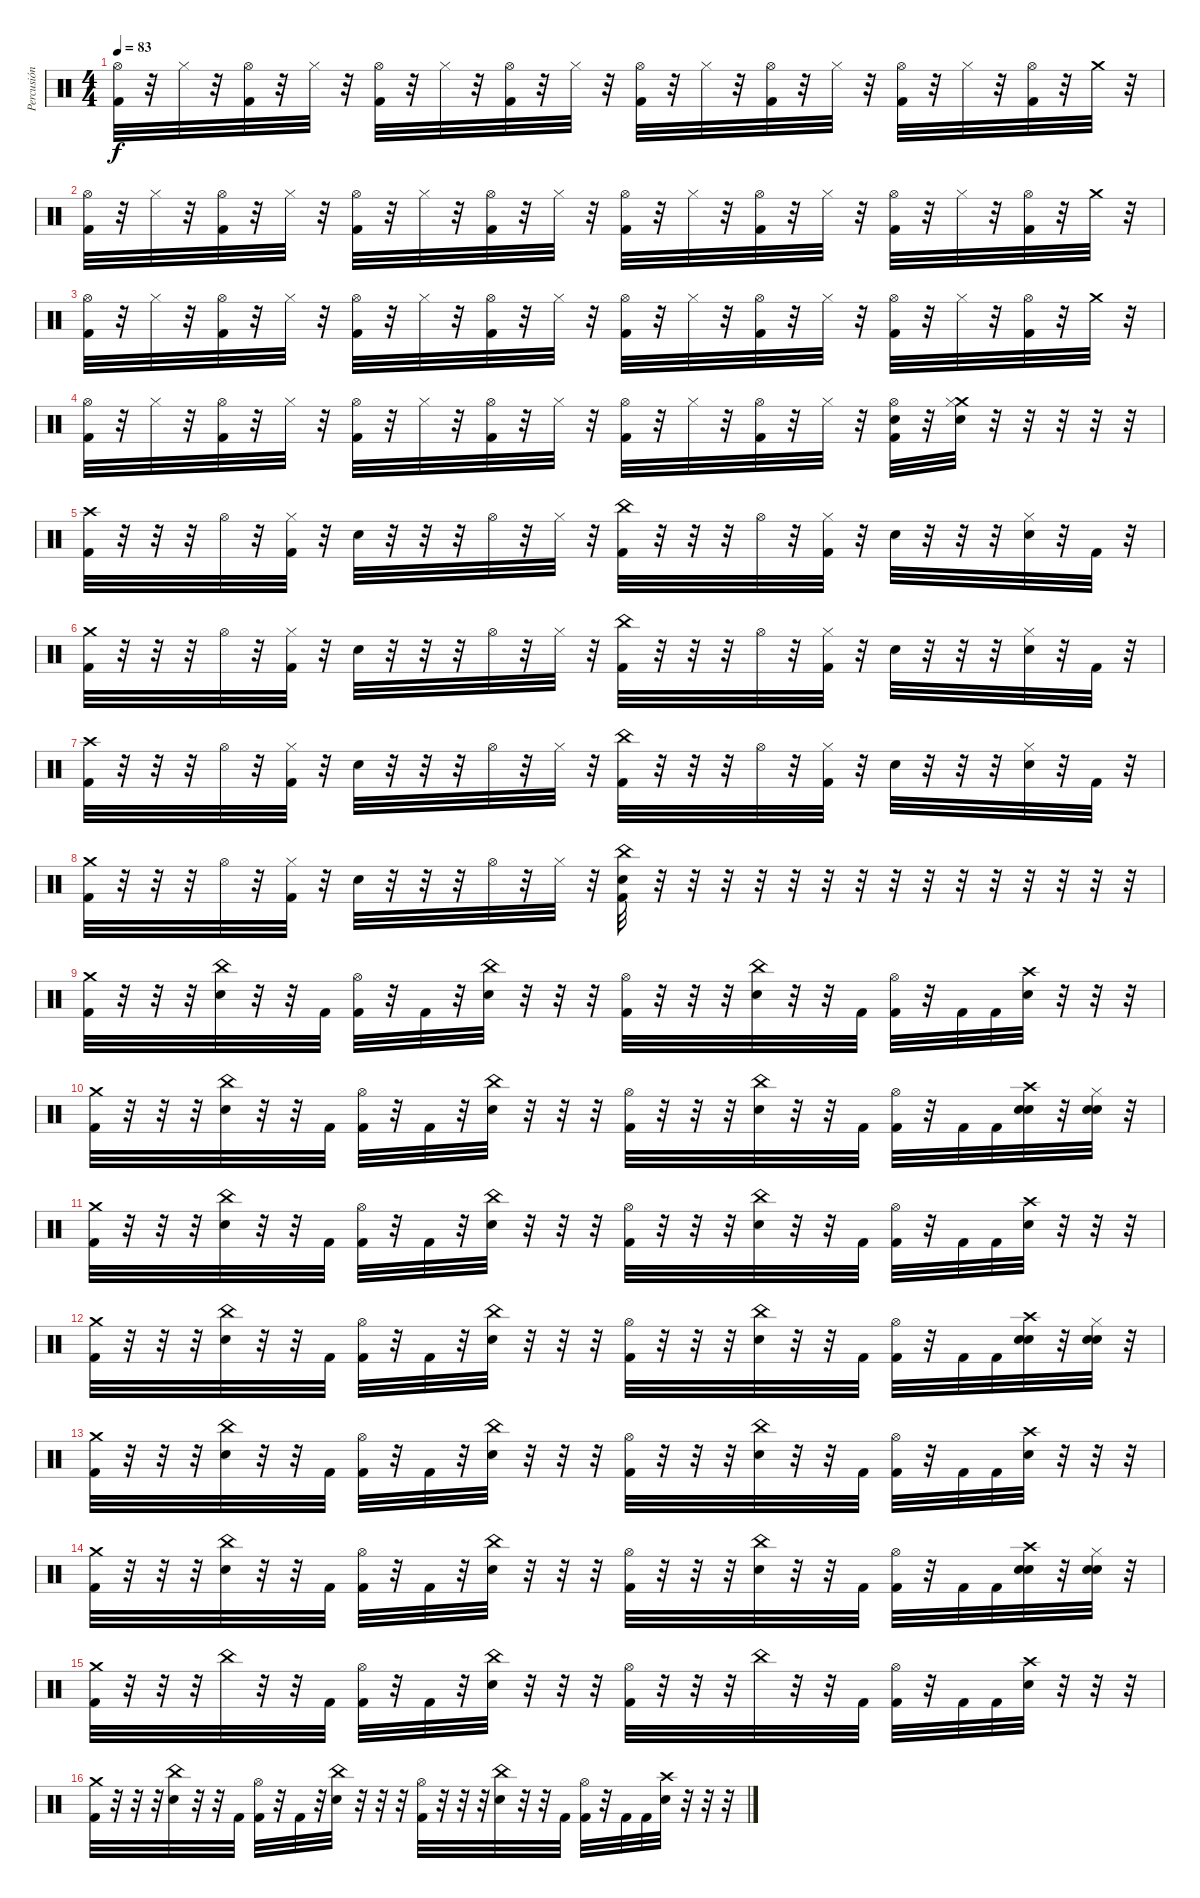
\track ("Percusión" "Percusión") {instrument percussion}
\staff {score}
\articulation defaults
\ts (4 4)
\tempo 83
\clef neutral
\ks c
("Hi-Hat (open)" "Kick (hit) 2").32{dy f} r.32 "Hi-Hat (closed)".32 r.32 ("Hi-Hat (open)" "Kick (hit) 2").32 r.32 "Hi-Hat (closed)".32 r.32 ("Hi-Hat (open)" "Kick (hit) 2").32 r.32 "Hi-Hat (closed)".32 r.32 ("Hi-Hat (open)" "Kick (hit) 2").32 r.32 "Hi-Hat (closed)".32 r.32 ("Hi-Hat (open)" "Kick (hit) 2").32 r.32 "Hi-Hat (closed)".32 r.32 ("Hi-Hat (open)" "Kick (hit) 2").32 r.32 "Hi-Hat (closed)".32 r.32 ("Hi-Hat (open)" "Kick (hit) 2").32 r.32 "Hi-Hat (closed)".32 r.32 ("Hi-Hat (open)" "Kick (hit) 2").32 r.32 "Crash medium (hit)".32 r.32 |
("Hi-Hat (open)" "Kick (hit) 2").32 r.32 "Hi-Hat (closed)".32 r.32 ("Hi-Hat (open)" "Kick (hit) 2").32 r.32 "Hi-Hat (closed)".32 r.32 ("Hi-Hat (open)" "Kick (hit) 2").32 r.32 "Hi-Hat (closed)".32 r.32 ("Hi-Hat (open)" "Kick (hit) 2").32 r.32 "Hi-Hat (closed)".32 r.32 ("Hi-Hat (open)" "Kick (hit) 2").32 r.32 "Hi-Hat (closed)".32 r.32 ("Hi-Hat (open)" "Kick (hit) 2").32 r.32 "Hi-Hat (closed)".32 r.32 ("Hi-Hat (open)" "Kick (hit) 2").32 r.32 "Hi-Hat (closed)".32 r.32 ("Hi-Hat (open)" "Kick (hit) 2").32 r.32 "Crash medium (hit)".32 r.32 |
("Hi-Hat (open)" "Kick (hit) 2").32 r.32 "Hi-Hat (closed)".32 r.32 ("Hi-Hat (open)" "Kick (hit) 2").32 r.32 "Hi-Hat (closed)".32 r.32 ("Hi-Hat (open)" "Kick (hit) 2").32 r.32 "Hi-Hat (closed)".32 r.32 ("Hi-Hat (open)" "Kick (hit) 2").32 r.32 "Hi-Hat (closed)".32 r.32 ("Hi-Hat (open)" "Kick (hit) 2").32 r.32 "Hi-Hat (closed)".32 r.32 ("Hi-Hat (open)" "Kick (hit) 2").32 r.32 "Hi-Hat (closed)".32 r.32 ("Hi-Hat (open)" "Kick (hit) 2").32 r.32 "Hi-Hat (closed)".32 r.32 ("Hi-Hat (open)" "Kick (hit) 2").32 r.32 "Crash medium (hit)".32 r.32 |
("Hi-Hat (open)" "Kick (hit) 2").32 r.32 "Hi-Hat (closed)".32 r.32 ("Hi-Hat (open)" "Kick (hit) 2").32 r.32 "Hi-Hat (closed)".32 r.32 ("Hi-Hat (open)" "Kick (hit) 2").32 r.32 "Hi-Hat (closed)".32 r.32 ("Hi-Hat (open)" "Kick (hit) 2").32 r.32 "Hi-Hat (closed)".32 r.32 ("Hi-Hat (open)" "Kick (hit) 2").32 r.32 "Hi-Hat (closed)".32 r.32 ("Hi-Hat (open)" "Kick (hit) 2").32 r.32 "Hi-Hat (closed)".32 r.32 ("Hi-Hat (open)" "Snare (hit) 2" "Kick (hit) 2").32 r.32 ("Crash medium (hit)" "Hi-Hat (closed)" "Snare (hit) 2").32 r.32 r.32 r.32 r.32 r.32 |
("Crash high (hit)" "Kick (hit) 2").32 r.32 r.32 r.32 "Hi-Hat (open)".32 r.32 ("Hi-Hat (closed)" "Kick (hit) 2").32 r.32 "Snare (hit) 2".32 r.32 r.32 r.32 "Hi-Hat (open)".32 r.32 "Hi-Hat (closed)".32 r.32 ("China (hit)" "Kick (hit) 2").32 r.32 r.32 r.32 "Hi-Hat (open)".32 r.32 ("Hi-Hat (closed)" "Kick (hit) 2").32 r.32 "Snare (hit) 2".32 r.32 r.32 r.32 ("Hi-Hat (closed)" "Snare (hit) 2").32 r.32 "Kick (hit) 2".32 r.32 |
("Crash medium (hit)" "Kick (hit) 2").32 r.32 r.32 r.32 "Hi-Hat (open)".32 r.32 ("Hi-Hat (closed)" "Kick (hit) 2").32 r.32 "Snare (hit) 2".32 r.32 r.32 r.32 "Hi-Hat (open)".32 r.32 "Hi-Hat (closed)".32 r.32 ("China (hit)" "Kick (hit) 2").32 r.32 r.32 r.32 "Hi-Hat (open)".32 r.32 ("Hi-Hat (closed)" "Kick (hit) 2").32 r.32 "Snare (hit) 2".32 r.32 r.32 r.32 ("Hi-Hat (closed)" "Snare (hit) 2").32 r.32 "Kick (hit) 2".32 r.32 |
("Crash high (hit)" "Kick (hit) 2").32 r.32 r.32 r.32 "Hi-Hat (open)".32 r.32 ("Hi-Hat (closed)" "Kick (hit) 2").32 r.32 "Snare (hit) 2".32 r.32 r.32 r.32 "Hi-Hat (open)".32 r.32 "Hi-Hat (closed)".32 r.32 ("China (hit)" "Kick (hit) 2").32 r.32 r.32 r.32 "Hi-Hat (open)".32 r.32 ("Hi-Hat (closed)" "Kick (hit) 2").32 r.32 "Snare (hit) 2".32 r.32 r.32 r.32 ("Hi-Hat (closed)" "Snare (hit) 2").32 r.32 "Kick (hit) 2".32 r.32 |
("Crash medium (hit)" "Kick (hit) 2").32 r.32 r.32 r.32 "Hi-Hat (open)".32 r.32 ("Hi-Hat (closed)" "Kick (hit) 2").32 r.32 "Snare (hit) 2".32 r.32 r.32 r.32 "Hi-Hat (open)".32 r.32 "Hi-Hat (closed)".32 r.32 ("China (hit)" "Snare (hit) 2" "Kick (hit) 2").32 r.32 r.32 r.32 r.32 r.32 r.32 r.32 r.32 r.32 r.32 r.32 r.32 r.32 r.32 r.32 |
("Crash medium (hit)" "Kick (hit) 2").32 r.32 r.32 r.32 ("China (hit)" "Snare (hit) 2").32 r.32 r.32 "Kick (hit) 2".32 ("Hi-Hat (open)" "Kick (hit) 2").32 r.32 "Kick (hit) 2".32 r.32 ("China (hit)" "Snare (hit) 2").32 r.32 r.32 r.32 ("Hi-Hat (open)" "Kick (hit) 2").32 r.32 r.32 r.32 ("China (hit)" "Snare (hit) 2").32 r.32 r.32 "Kick (hit) 2".32 ("Hi-Hat (open)" "Kick (hit) 2").32 r.32 "Kick (hit) 2".32 "Kick (hit) 2".32 ("Crash high (hit)" "Snare (hit) 2").32 r.32 r.32 r.32 |
("Crash medium (hit)" "Kick (hit) 2").32 r.32 r.32 r.32 ("China (hit)" "Snare (hit) 2").32 r.32 r.32 "Kick (hit) 2".32 ("Hi-Hat (open)" "Kick (hit) 2").32 r.32 "Kick (hit) 2".32 r.32 ("China (hit)" "Snare (hit) 2").32 r.32 r.32 r.32 ("Hi-Hat (open)" "Kick (hit) 2").32 r.32 r.32 r.32 ("China (hit)" "Snare (hit) 2").32 r.32 r.32 "Kick (hit) 2".32 ("Hi-Hat (open)" "Kick (hit) 2").32 r.32 "Kick (hit) 2".32 "Kick (hit) 2".32 ("Crash high (hit)" "Hand Clap (hit)" "Snare (hit) 2").32 r.32 ("Hi-Hat (closed)" "Hand Clap (hit)" "Snare (hit) 2").32 r.32 |
("Crash medium (hit)" "Kick (hit) 2").32 r.32 r.32 r.32 ("China (hit)" "Snare (hit) 2").32 r.32 r.32 "Kick (hit) 2".32 ("Hi-Hat (open)" "Kick (hit) 2").32 r.32 "Kick (hit) 2".32 r.32 ("China (hit)" "Snare (hit) 2").32 r.32 r.32 r.32 ("Hi-Hat (open)" "Kick (hit) 2").32 r.32 r.32 r.32 ("China (hit)" "Snare (hit) 2").32 r.32 r.32 "Kick (hit) 2".32 ("Hi-Hat (open)" "Kick (hit) 2").32 r.32 "Kick (hit) 2".32 "Kick (hit) 2".32 ("Crash high (hit)" "Snare (hit) 2").32 r.32 r.32 r.32 |
("Crash medium (hit)" "Kick (hit) 2").32 r.32 r.32 r.32 ("China (hit)" "Snare (hit) 2").32 r.32 r.32 "Kick (hit) 2".32 ("Hi-Hat (open)" "Kick (hit) 2").32 r.32 "Kick (hit) 2".32 r.32 ("China (hit)" "Snare (hit) 2").32 r.32 r.32 r.32 ("Hi-Hat (open)" "Kick (hit) 2").32 r.32 r.32 r.32 ("China (hit)" "Snare (hit) 2").32 r.32 r.32 "Kick (hit) 2".32 ("Hi-Hat (open)" "Kick (hit) 2").32 r.32 "Kick (hit) 2".32 "Kick (hit) 2".32 ("Crash high (hit)" "Hand Clap (hit)" "Snare (hit) 2").32 r.32 ("Hi-Hat (closed)" "Hand Clap (hit)" "Snare (hit) 2").32 r.32 |
("Crash medium (hit)" "Kick (hit) 2").32 r.32 r.32 r.32 ("China (hit)" "Snare (hit) 2").32 r.32 r.32 "Kick (hit) 2".32 ("Hi-Hat (open)" "Kick (hit) 2").32 r.32 "Kick (hit) 2".32 r.32 ("China (hit)" "Snare (hit) 2").32 r.32 r.32 r.32 ("Hi-Hat (open)" "Kick (hit) 2").32 r.32 r.32 r.32 ("China (hit)" "Snare (hit) 2").32 r.32 r.32 "Kick (hit) 2".32 ("Hi-Hat (open)" "Kick (hit) 2").32 r.32 "Kick (hit) 2".32 "Kick (hit) 2".32 ("Crash high (hit)" "Snare (hit) 2").32 r.32 r.32 r.32 |
("Crash medium (hit)" "Kick (hit) 2").32 r.32 r.32 r.32 ("China (hit)" "Snare (hit) 2").32 r.32 r.32 "Kick (hit) 2".32 ("Hi-Hat (open)" "Kick (hit) 2").32 r.32 "Kick (hit) 2".32 r.32 ("China (hit)" "Snare (hit) 2").32 r.32 r.32 r.32 ("Hi-Hat (open)" "Kick (hit) 2").32 r.32 r.32 r.32 ("China (hit)" "Snare (hit) 2").32 r.32 r.32 "Kick (hit) 2".32 ("Hi-Hat (open)" "Kick (hit) 2").32 r.32 "Kick (hit) 2".32 "Kick (hit) 2".32 ("Crash high (hit)" "Hand Clap (hit)" "Snare (hit) 2").32 r.32 ("Hi-Hat (closed)" "Hand Clap (hit)" "Snare (hit) 2").32 r.32 |
("Crash medium (hit)" "Kick (hit) 2").32 r.32 r.32 r.32 "China (hit)".32 r.32 r.32 "Kick (hit) 2".32 ("Hi-Hat (open)" "Kick (hit) 2").32 r.32 "Kick (hit) 2".32 r.32 ("China (hit)" "Snare (hit) 2").32 r.32 r.32 r.32 ("Hi-Hat (open)" "Kick (hit) 2").32 r.32 r.32 r.32 "China (hit)".32 r.32 r.32 "Kick (hit) 2".32 ("Hi-Hat (open)" "Kick (hit) 2").32 r.32 "Kick (hit) 2".32 "Kick (hit) 2".32 ("Crash high (hit)" "Snare (hit) 2").32 r.32 r.32 r.32 |
("Crash medium (hit)" "Kick (hit) 2").32 r.32 r.32 r.32 ("China (hit)" "Snare (hit) 2").32 r.32 r.32 "Kick (hit) 2".32 ("Hi-Hat (open)" "Kick (hit) 2").32 r.32 "Kick (hit) 2".32 r.32 ("China (hit)" "Snare (hit) 2").32 r.32 r.32 r.32 ("Hi-Hat (open)" "Kick (hit) 2").32 r.32 r.32 r.32 ("China (hit)" "Snare (hit) 2").32 r.32 r.32 "Kick (hit) 2".32 ("Hi-Hat (open)" "Kick (hit) 2").32 r.32 "Kick (hit) 2".32 "Kick (hit) 2".32 ("Crash high (hit)" "Snare (hit) 2").32 r.32 r.32 r.32
